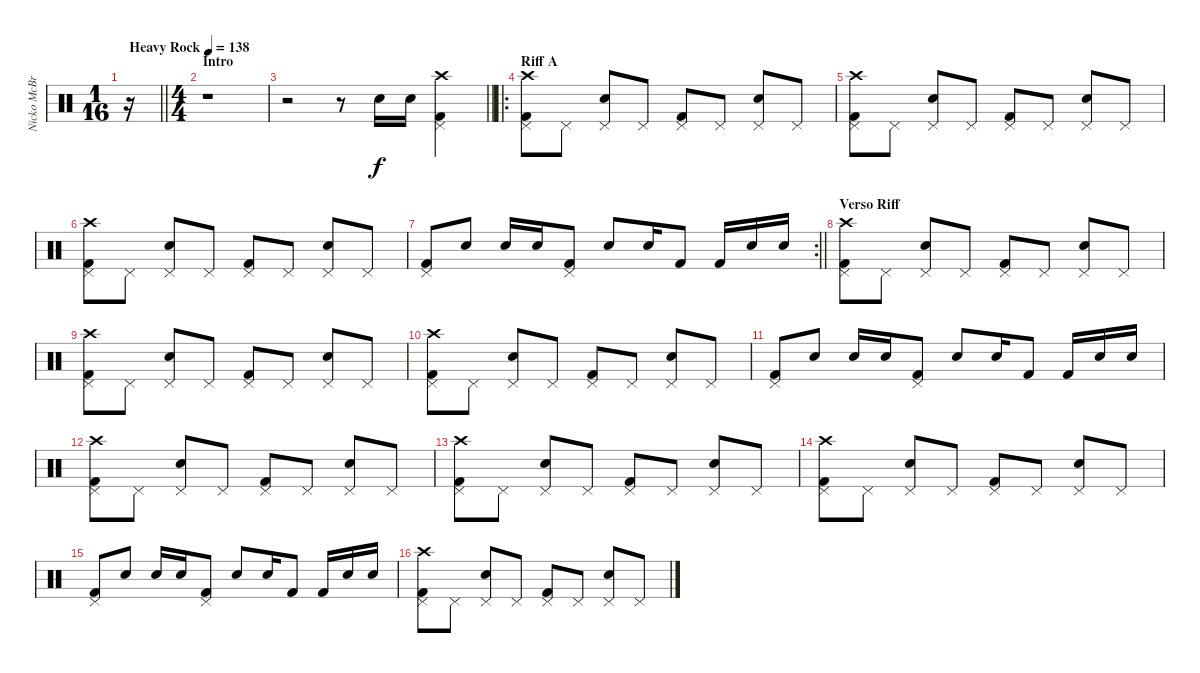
\track ("Nicko McBrain" "Nicko McBr") {instrument percussion}
\staff {score}
\articulation defaults
\ts (1 16)
\tempo (138 "Heavy Rock")
\clef neutral
\barLineRight lightlight
\ks c
r.16{dy f} |
\ts (4 4)
\section ("" "Intro")
r.1 |
\barLineRight lightlight
r.2 r.8 "Snare (hit) 2".16 "Snare (hit) 2".16 ("Kick (hit) 2" "Pedal Hi-Hat (hit)" "Crash high (hit)").4 |
\ro
\section ("" "Riff A")
("Kick (hit) 2" "Pedal Hi-Hat (hit)" "Crash high (hit)").8 "Pedal Hi-Hat (hit)".8 ("Snare (hit) 2" "Pedal Hi-Hat (hit)").8 "Pedal Hi-Hat (hit)".8 ("Kick (hit) 2" "Pedal Hi-Hat (hit)").8 "Pedal Hi-Hat (hit)".8 ("Snare (hit) 2" "Pedal Hi-Hat (hit)").8 "Pedal Hi-Hat (hit)".8 |
("Kick (hit) 2" "Pedal Hi-Hat (hit)" "Crash high (hit)").8 "Pedal Hi-Hat (hit)".8 ("Snare (hit) 2" "Pedal Hi-Hat (hit)").8 "Pedal Hi-Hat (hit)".8 ("Kick (hit) 2" "Pedal Hi-Hat (hit)").8 "Pedal Hi-Hat (hit)".8 ("Snare (hit) 2" "Pedal Hi-Hat (hit)").8 "Pedal Hi-Hat (hit)".8 |
("Kick (hit) 2" "Pedal Hi-Hat (hit)" "Crash high (hit)").8 "Pedal Hi-Hat (hit)".8 ("Snare (hit) 2" "Pedal Hi-Hat (hit)").8 "Pedal Hi-Hat (hit)".8 ("Kick (hit) 2" "Pedal Hi-Hat (hit)").8 "Pedal Hi-Hat (hit)".8 ("Snare (hit) 2" "Pedal Hi-Hat (hit)").8 "Pedal Hi-Hat (hit)".8 |
\rc 2
\barLineRight lightlight
("Kick (hit) 2" "Pedal Hi-Hat (hit)").8 "Snare (hit) 2".8 "Snare (hit) 2".16 "Snare (hit) 2".16 ("Kick (hit) 2" "Pedal Hi-Hat (hit)").8 "Snare (hit) 2".8 "Snare (hit) 2".16 "Kick (hit) 2".8 "Kick (hit) 2".16 "Snare (hit) 2".16 "Snare (hit) 2".16 |
\section ("" "Verso Riff")
("Kick (hit) 2" "Pedal Hi-Hat (hit)" "Crash high (hit)").8 "Pedal Hi-Hat (hit)".8 ("Snare (hit) 2" "Pedal Hi-Hat (hit)").8 "Pedal Hi-Hat (hit)".8 ("Kick (hit) 2" "Pedal Hi-Hat (hit)").8 "Pedal Hi-Hat (hit)".8 ("Snare (hit) 2" "Pedal Hi-Hat (hit)").8 "Pedal Hi-Hat (hit)".8 |
("Kick (hit) 2" "Pedal Hi-Hat (hit)" "Crash high (hit)").8 "Pedal Hi-Hat (hit)".8 ("Snare (hit) 2" "Pedal Hi-Hat (hit)").8 "Pedal Hi-Hat (hit)".8 ("Kick (hit) 2" "Pedal Hi-Hat (hit)").8 "Pedal Hi-Hat (hit)".8 ("Snare (hit) 2" "Pedal Hi-Hat (hit)").8 "Pedal Hi-Hat (hit)".8 |
("Kick (hit) 2" "Pedal Hi-Hat (hit)" "Crash high (hit)").8 "Pedal Hi-Hat (hit)".8 ("Snare (hit) 2" "Pedal Hi-Hat (hit)").8 "Pedal Hi-Hat (hit)".8 ("Kick (hit) 2" "Pedal Hi-Hat (hit)").8 "Pedal Hi-Hat (hit)".8 ("Snare (hit) 2" "Pedal Hi-Hat (hit)").8 "Pedal Hi-Hat (hit)".8 |
("Kick (hit) 2" "Pedal Hi-Hat (hit)").8 "Snare (hit) 2".8 "Snare (hit) 2".16 "Snare (hit) 2".16 ("Kick (hit) 2" "Pedal Hi-Hat (hit)").8 "Snare (hit) 2".8 "Snare (hit) 2".16 "Kick (hit) 2".8 "Kick (hit) 2".16 "Snare (hit) 2".16 "Snare (hit) 2".16 |
("Kick (hit) 2" "Pedal Hi-Hat (hit)" "Crash high (hit)").8 "Pedal Hi-Hat (hit)".8 ("Snare (hit) 2" "Pedal Hi-Hat (hit)").8 "Pedal Hi-Hat (hit)".8 ("Kick (hit) 2" "Pedal Hi-Hat (hit)").8 "Pedal Hi-Hat (hit)".8 ("Snare (hit) 2" "Pedal Hi-Hat (hit)").8 "Pedal Hi-Hat (hit)".8 |
("Kick (hit) 2" "Pedal Hi-Hat (hit)" "Crash high (hit)").8 "Pedal Hi-Hat (hit)".8 ("Snare (hit) 2" "Pedal Hi-Hat (hit)").8 "Pedal Hi-Hat (hit)".8 ("Kick (hit) 2" "Pedal Hi-Hat (hit)").8 "Pedal Hi-Hat (hit)".8 ("Snare (hit) 2" "Pedal Hi-Hat (hit)").8 "Pedal Hi-Hat (hit)".8 |
("Kick (hit) 2" "Pedal Hi-Hat (hit)" "Crash high (hit)").8 "Pedal Hi-Hat (hit)".8 ("Snare (hit) 2" "Pedal Hi-Hat (hit)").8 "Pedal Hi-Hat (hit)".8 ("Kick (hit) 2" "Pedal Hi-Hat (hit)").8 "Pedal Hi-Hat (hit)".8 ("Snare (hit) 2" "Pedal Hi-Hat (hit)").8 "Pedal Hi-Hat (hit)".8 |
("Kick (hit) 2" "Pedal Hi-Hat (hit)").8 "Snare (hit) 2".8 "Snare (hit) 2".16 "Snare (hit) 2".16 ("Kick (hit) 2" "Pedal Hi-Hat (hit)").8 "Snare (hit) 2".8 "Snare (hit) 2".16 "Kick (hit) 2".8 "Kick (hit) 2".16 "Snare (hit) 2".16 "Snare (hit) 2".16 |
("Kick (hit) 2" "Pedal Hi-Hat (hit)" "Crash high (hit)").8 "Pedal Hi-Hat (hit)".8 ("Snare (hit) 2" "Pedal Hi-Hat (hit)").8 "Pedal Hi-Hat (hit)".8 ("Kick (hit) 2" "Pedal Hi-Hat (hit)").8 "Pedal Hi-Hat (hit)".8 ("Snare (hit) 2" "Pedal Hi-Hat (hit)").8 "Pedal Hi-Hat (hit)".8
